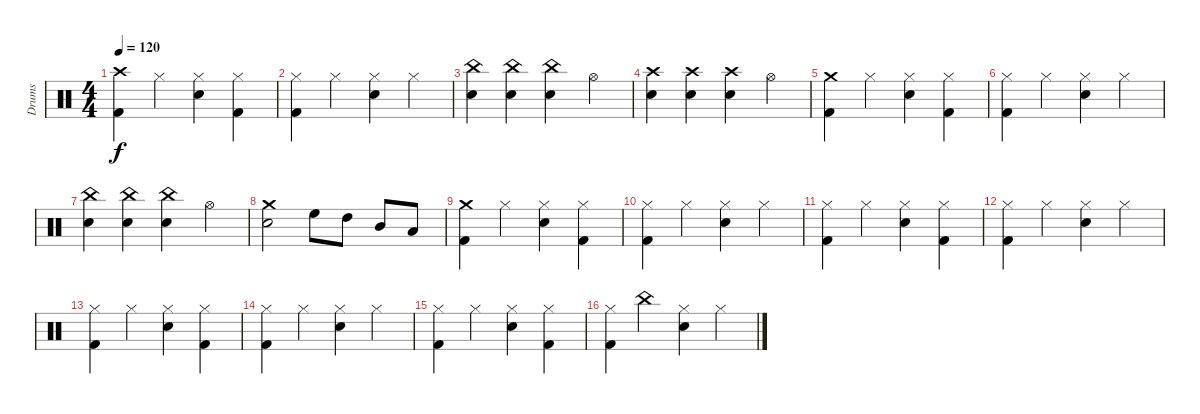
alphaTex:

\track ("Drums" "Drums") {instrument percussion}
\staff {score}
\articulation defaults
\ts (4 4)
\tempo 120
\clef neutral
\ks c
("Crash high (hit)" "Kick (hit) 2").4{dy f} "Hi-Hat (closed)".4 ("Hi-Hat (closed)" "Electric Snare (hit)").4 ("Hi-Hat (closed)" "Kick (hit) 2").4 |
("Hi-Hat (closed)" "Kick (hit) 2").4 "Hi-Hat (closed)".4 ("Hi-Hat (closed)" "Electric Snare (hit)").4 "Hi-Hat (closed)".4 |
("China (hit)" "Electric Snare (hit)").4 ("China (hit)" "Electric Snare (hit)").4 ("China (hit)" "Electric Snare (hit)").4 "Hi-Hat (open)".4 |
("Crash high (hit)" "Electric Snare (hit)").4 ("Crash high (hit)" "Electric Snare (hit)").4 ("Crash high (hit)" "Electric Snare (hit)").4 "Hi-Hat (open)".4 |
("Crash medium (hit)" "Kick (hit) 2").4 "Hi-Hat (closed)".4 ("Hi-Hat (closed)" "Electric Snare (hit)").4 ("Hi-Hat (closed)" "Kick (hit) 2").4 |
("Hi-Hat (closed)" "Kick (hit) 2").4 "Hi-Hat (closed)".4 ("Hi-Hat (closed)" "Electric Snare (hit)").4 "Hi-Hat (closed)".4 |
("China (hit)" "Electric Snare (hit)").4 ("China (hit)" "Electric Snare (hit)").4 ("China (hit)" "Electric Snare (hit)").4 "Hi-Hat (open)".4 |
("Crash medium (hit)" "Electric Snare (hit)").2 "High Floor Tom (hit)".8 "High Tom (hit)".8 "Mid Tom (hit)".8 "Low Tom (hit)".8 |
("Crash medium (hit)" "Kick (hit) 2").4 "Hi-Hat (closed)".4 ("Hi-Hat (closed)" "Electric Snare (hit)").4 ("Hi-Hat (closed)" "Kick (hit) 2").4 |
("Hi-Hat (closed)" "Kick (hit) 2").4 "Hi-Hat (closed)".4 ("Hi-Hat (closed)" "Electric Snare (hit)").4 "Hi-Hat (closed)".4 |
("Hi-Hat (closed)" "Kick (hit) 2").4 "Hi-Hat (closed)".4 ("Hi-Hat (closed)" "Electric Snare (hit)").4 ("Hi-Hat (closed)" "Kick (hit) 2").4 |
("Hi-Hat (closed)" "Kick (hit) 2").4 "Hi-Hat (closed)".4 ("Hi-Hat (closed)" "Electric Snare (hit)").4 "Hi-Hat (closed)".4 |
("Hi-Hat (closed)" "Kick (hit) 2").4 "Hi-Hat (closed)".4 ("Hi-Hat (closed)" "Electric Snare (hit)").4 ("Hi-Hat (closed)" "Kick (hit) 2").4 |
("Hi-Hat (closed)" "Kick (hit) 2").4 "Hi-Hat (closed)".4 ("Hi-Hat (closed)" "Electric Snare (hit)").4 "Hi-Hat (closed)".4 |
("Hi-Hat (closed)" "Kick (hit) 2").4 "Hi-Hat (closed)".4 ("Hi-Hat (closed)" "Electric Snare (hit)").4 ("Hi-Hat (closed)" "Kick (hit) 2").4 |
("Hi-Hat (closed)" "Kick (hit) 2").4 "China (hit)".4 ("Hi-Hat (closed)" "Electric Snare (hit)").4 "Hi-Hat (closed)".4
